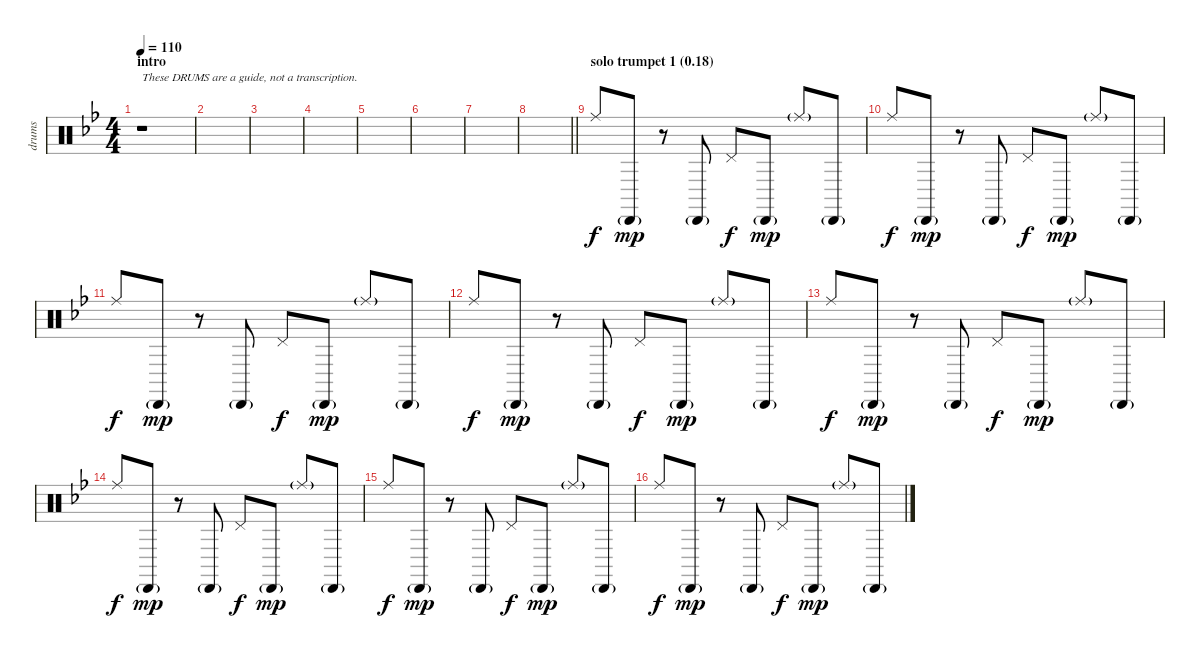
\track ("drums" "drums") {instrument percussion}
\staff {score}
\articulation defaults
\ts (4 4)
\section ("" "intro")
\tempo 110
\clef neutral
\ks bb
r.1{txt "These DRUMS are a guide, not a transcription." dy f} |
|
|
|
|
|
|
\barLineRight lightlight
|
\section ("" "solo trumpet 1 (0.18)")
"Ride (middle)".8 "Cabasa (hit)"{g}.8{dy mp} r.8 "Cabasa (hit)"{g}.8 "Pedal Hi-Hat (hit)".8{dy f} "Cabasa (hit)"{g}.8{dy mp} "Ride (middle)"{g}.8 "Cabasa (hit)"{g}.8 |
"Ride (middle)".8{dy f} "Cabasa (hit)"{g}.8{dy mp} r.8 "Cabasa (hit)"{g}.8 "Pedal Hi-Hat (hit)".8{dy f} "Cabasa (hit)"{g}.8{dy mp} "Ride (middle)"{g}.8 "Cabasa (hit)"{g}.8 |
"Ride (middle)".8{dy f} "Cabasa (hit)"{g}.8{dy mp} r.8 "Cabasa (hit)"{g}.8 "Pedal Hi-Hat (hit)".8{dy f} "Cabasa (hit)"{g}.8{dy mp} "Ride (middle)"{g}.8 "Cabasa (hit)"{g}.8 |
"Ride (middle)".8{dy f} "Cabasa (hit)"{g}.8{dy mp} r.8 "Cabasa (hit)"{g}.8 "Pedal Hi-Hat (hit)".8{dy f} "Cabasa (hit)"{g}.8{dy mp} "Ride (middle)"{g}.8 "Cabasa (hit)"{g}.8 |
"Ride (middle)".8{dy f} "Cabasa (hit)"{g}.8{dy mp} r.8 "Cabasa (hit)"{g}.8 "Pedal Hi-Hat (hit)".8{dy f} "Cabasa (hit)"{g}.8{dy mp} "Ride (middle)"{g}.8 "Cabasa (hit)"{g}.8 |
"Ride (middle)".8{dy f} "Cabasa (hit)"{g}.8{dy mp} r.8 "Cabasa (hit)"{g}.8 "Pedal Hi-Hat (hit)".8{dy f} "Cabasa (hit)"{g}.8{dy mp} "Ride (middle)"{g}.8 "Cabasa (hit)"{g}.8 |
"Ride (middle)".8{dy f} "Cabasa (hit)"{g}.8{dy mp} r.8 "Cabasa (hit)"{g}.8 "Pedal Hi-Hat (hit)".8{dy f} "Cabasa (hit)"{g}.8{dy mp} "Ride (middle)"{g}.8 "Cabasa (hit)"{g}.8 |
"Ride (middle)".8{dy f} "Cabasa (hit)"{g}.8{dy mp} r.8 "Cabasa (hit)"{g}.8 "Pedal Hi-Hat (hit)".8{dy f} "Cabasa (hit)"{g}.8{dy mp} "Ride (middle)"{g}.8 "Cabasa (hit)"{g}.8
